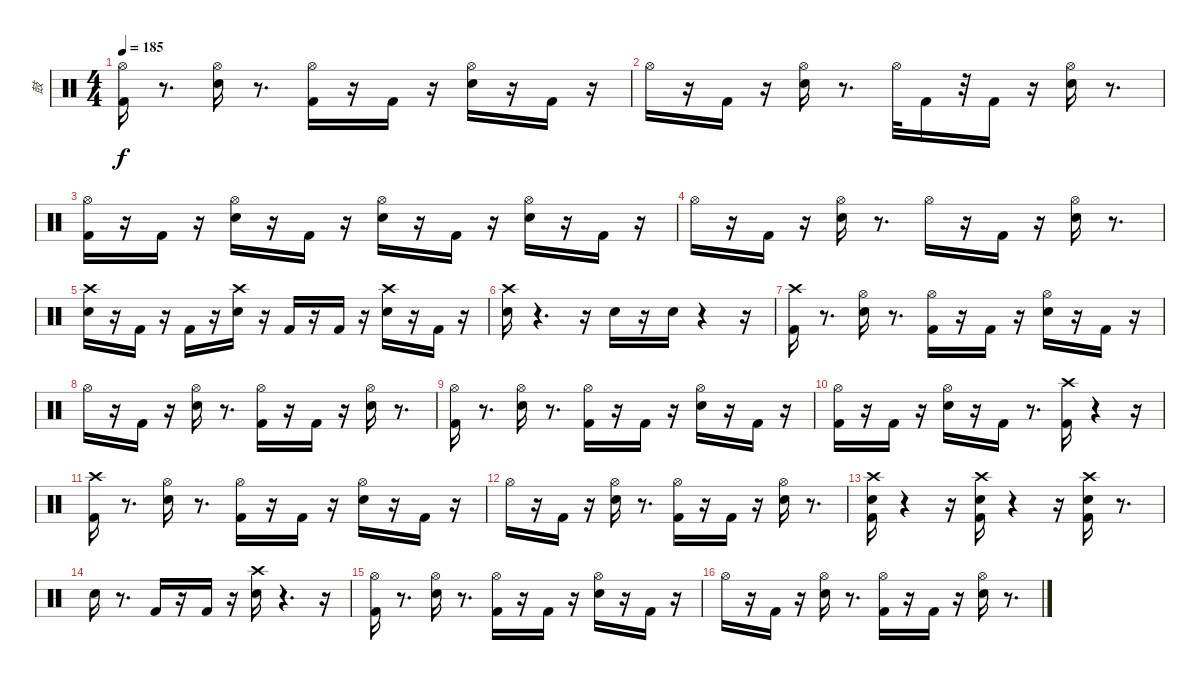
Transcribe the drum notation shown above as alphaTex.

\track ("鼓" "鼓") {instrument percussion}
\staff {score}
\articulation defaults
\ts (4 4)
\tempo 185
\clef neutral
\ks c
("Hi-Hat (open)" "Kick (hit) 2").16{dy f} r.8{d} ("Hi-Hat (open)" "Snare (hit) 2").16 r.8{d} ("Hi-Hat (open)" "Kick (hit) 2").16 r.16 "Kick (hit) 2".16 r.16 ("Hi-Hat (open)" "Snare (hit) 2").16 r.16 "Kick (hit) 2".16 r.16 |
"Hi-Hat (open)".16 r.16 "Kick (hit) 2".16 r.16 ("Hi-Hat (open)" "Snare (hit) 2").16 r.8{d} "Hi-Hat (open)".32 "Kick (hit) 2".16 r.32 "Kick (hit) 2".16 r.16 ("Hi-Hat (open)" "Snare (hit) 2").16 r.8{d} |
("Hi-Hat (open)" "Kick (hit) 2").16 r.16 "Kick (hit) 2".16 r.16 ("Hi-Hat (open)" "Snare (hit) 2").16 r.16 "Kick (hit) 2".16 r.16 ("Hi-Hat (open)" "Snare (hit) 2").16 r.16 "Kick (hit) 2".16 r.16 ("Hi-Hat (open)" "Snare (hit) 2").16 r.16 "Kick (hit) 2".16 r.16 |
"Hi-Hat (open)".16 r.16 "Kick (hit) 2".16 r.16 ("Hi-Hat (open)" "Snare (hit) 2").16 r.8{d} "Hi-Hat (open)".16 r.16 "Kick (hit) 2".16 r.16 ("Hi-Hat (open)" "Snare (hit) 2").16 r.8{d} |
("Crash high (hit)" "Snare (hit) 2").16 r.16 "Kick (hit) 2".16 r.16 "Kick (hit) 2".16 r.16 ("Crash high (hit)" "Snare (hit) 2").16 r.16 "Kick (hit) 2".16 r.16 "Kick (hit) 2".16 r.16 ("Crash high (hit)" "Snare (hit) 2").16 r.16 "Kick (hit) 2".16 r.16 |
("Crash high (hit)" "Snare (hit) 2").16 r.4{d} r.16 "Snare (hit) 2".16 r.16 "Snare (hit) 2".16 r.4 r.16 |
("Crash high (hit)" "Kick (hit) 2").16 r.8{d} ("Hi-Hat (open)" "Snare (hit) 2").16 r.8{d} ("Hi-Hat (open)" "Kick (hit) 2").16 r.16 "Kick (hit) 2".16 r.16 ("Hi-Hat (open)" "Snare (hit) 2").16 r.16 "Kick (hit) 2".16 r.16 |
"Hi-Hat (open)".16 r.16 "Kick (hit) 2".16 r.16 ("Hi-Hat (open)" "Snare (hit) 2").16 r.8{d} ("Kick (hit) 2" "Hi-Hat (open)").16 r.16 "Kick (hit) 2".16 r.16 ("Hi-Hat (open)" "Snare (hit) 2").16 r.8{d} |
("Hi-Hat (open)" "Kick (hit) 2").16 r.8{d} ("Hi-Hat (open)" "Snare (hit) 2").16 r.8{d} ("Hi-Hat (open)" "Kick (hit) 2").16 r.16 "Kick (hit) 2".16 r.16 ("Hi-Hat (open)" "Snare (hit) 2").16 r.16 "Kick (hit) 2".16 r.16 |
("Kick (hit) 2" "Hi-Hat (open)").16 r.16 "Kick (hit) 2".16 r.16 ("Hi-Hat (open)" "Snare (hit) 2").16 r.16 "Kick (hit) 2".16 r.8{d} ("Crash high (hit)" "Kick (hit) 2").16 r.4 r.16 |
("Crash high (hit)" "Kick (hit) 2").16 r.8{d} ("Hi-Hat (open)" "Snare (hit) 2").16 r.8{d} ("Hi-Hat (open)" "Kick (hit) 2").16 r.16 "Kick (hit) 2".16 r.16 ("Hi-Hat (open)" "Snare (hit) 2").16 r.16 "Kick (hit) 2".16 r.16 |
"Hi-Hat (open)".16 r.16 "Kick (hit) 2".16 r.16 ("Hi-Hat (open)" "Snare (hit) 2").16 r.8{d} ("Kick (hit) 2" "Hi-Hat (open)").16 r.16 "Kick (hit) 2".16 r.16 ("Hi-Hat (open)" "Snare (hit) 2").16 r.8{d} |
("Snare (hit) 2" "Kick (hit) 2" "Crash high (hit)").16 r.4 r.16 ("Snare (hit) 2" "Kick (hit) 2" "Crash high (hit)").16 r.4 r.16 ("Crash high (hit)" "Snare (hit) 2" "Kick (hit) 2").16 r.8{d} |
"Snare (hit) 2".16 r.8{d} "Kick (hit) 2".16 r.16 "Kick (hit) 2".16 r.16 ("Snare (hit) 2" "Crash high (hit)").16 r.4{d} r.16 |
("Hi-Hat (open)" "Kick (hit) 2").16 r.8{d} ("Hi-Hat (open)" "Snare (hit) 2").16 r.8{d} ("Hi-Hat (open)" "Kick (hit) 2").16 r.16 "Kick (hit) 2".16 r.16 ("Hi-Hat (open)" "Snare (hit) 2").16 r.16 "Kick (hit) 2".16 r.16 |
"Hi-Hat (open)".16 r.16 "Kick (hit) 2".16 r.16 ("Hi-Hat (open)" "Snare (hit) 2").16 r.8{d} ("Kick (hit) 2" "Hi-Hat (open)").16 r.16 "Kick (hit) 2".16 r.16 ("Hi-Hat (open)" "Snare (hit) 2").16 r.8{d}
